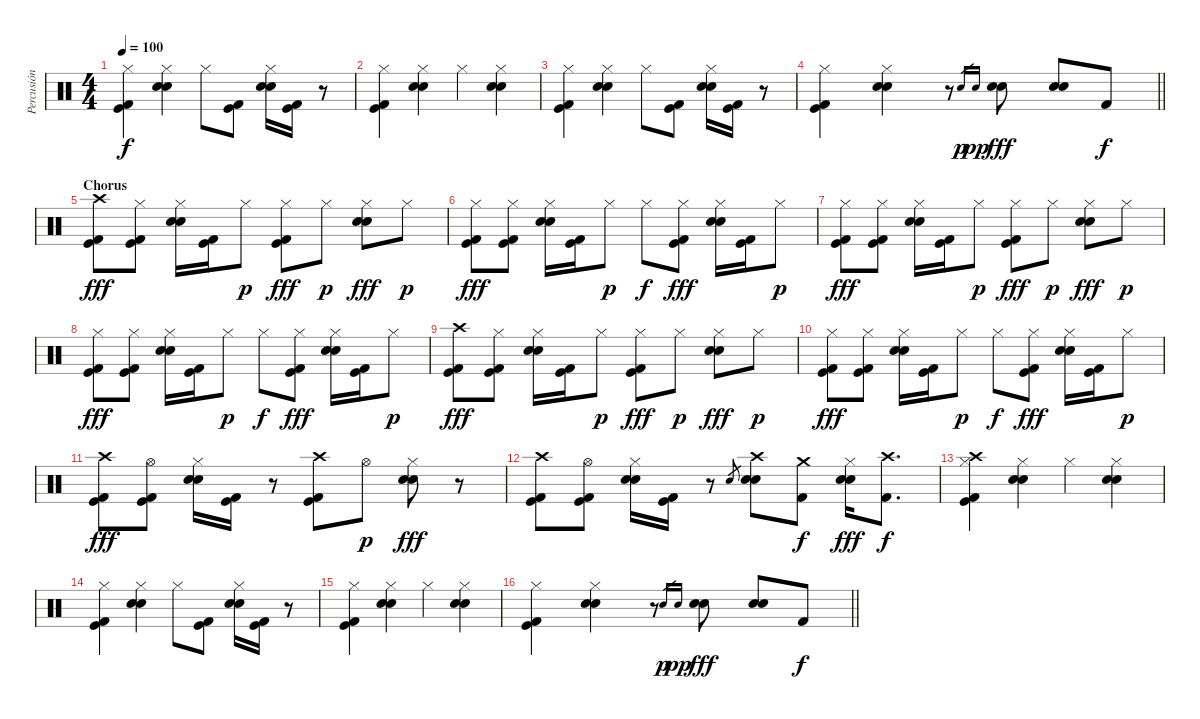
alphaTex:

\track ("Percusión" "Percusión") {instrument percussion}
\staff {score}
\articulation defaults
\ts (4 4)
\tempo 100
\clef neutral
\ks c
("Hi-Hat (closed)" "Kick (hit)" "Kick (hit) 2").4{dy f} ("Hi-Hat (closed)" "Snare (hit) 2" "Electric Snare (hit)").4 "Hi-Hat (closed)".8 ("Kick (hit)" "Kick (hit) 2").8 ("Hi-Hat (closed)" "Snare (hit) 2" "Electric Snare (hit)").16 ("Kick (hit)" "Kick (hit) 2").16 r.8 |
("Hi-Hat (closed)" "Kick (hit)" "Kick (hit) 2").4 ("Hi-Hat (closed)" "Snare (hit) 2" "Electric Snare (hit)").4 "Hi-Hat (closed)".4 ("Hi-Hat (closed)" "Snare (hit) 2" "Electric Snare (hit)").4 |
("Hi-Hat (closed)" "Kick (hit)" "Kick (hit) 2").4 ("Hi-Hat (closed)" "Snare (hit) 2" "Electric Snare (hit)").4 "Hi-Hat (closed)".8 ("Kick (hit)" "Kick (hit) 2").8 ("Hi-Hat (closed)" "Snare (hit) 2" "Electric Snare (hit)").16 ("Kick (hit)" "Kick (hit) 2").16 r.8 |
\barLineRight lightlight
("Hi-Hat (closed)" "Kick (hit)" "Kick (hit) 2").4 ("Hi-Hat (closed)" "Snare (hit) 2" "Electric Snare (hit)").4 r.8 "Snare (hit) 2".16{gr dy p} "Electric Snare (hit)".16{gr dy pp} ("Snare (hit) 2" "Electric Snare (hit)").8{dy fff} ("Snare (hit) 2" "Electric Snare (hit)").8 "Kick (hit) 2".8{dy f} |
\section ("" "Chorus")
("Crash high (hit)" "Kick (hit)" "Kick (hit) 2").8{dy fff} ("Hi-Hat (closed)" "Kick (hit)" "Kick (hit) 2").8 ("Hi-Hat (closed)" "Snare (hit) 2" "Electric Snare (hit)").16 ("Kick (hit)" "Kick (hit) 2").16 "Hi-Hat (closed)".8{dy p} ("Hi-Hat (closed)" "Kick (hit)" "Kick (hit) 2").8{dy fff} "Hi-Hat (closed)".8{dy p} ("Hi-Hat (closed)" "Snare (hit) 2" "Electric Snare (hit)").8{dy fff} "Hi-Hat (closed)".8{dy p} |
("Hi-Hat (closed)" "Kick (hit)" "Kick (hit) 2").8{dy fff} ("Hi-Hat (closed)" "Kick (hit)" "Kick (hit) 2").8 ("Hi-Hat (closed)" "Snare (hit) 2" "Electric Snare (hit)").16 ("Kick (hit)" "Kick (hit) 2").16 "Hi-Hat (closed)".8{dy p} "Hi-Hat (closed)".8{dy f} ("Hi-Hat (closed)" "Kick (hit)" "Kick (hit) 2").8{dy fff} ("Hi-Hat (closed)" "Snare (hit) 2" "Electric Snare (hit)").16 ("Kick (hit)" "Kick (hit) 2").16 "Hi-Hat (closed)".8{dy p} |
("Hi-Hat (closed)" "Kick (hit)" "Kick (hit) 2").8{dy fff} ("Hi-Hat (closed)" "Kick (hit)" "Kick (hit) 2").8 ("Hi-Hat (closed)" "Snare (hit) 2" "Electric Snare (hit)").16 ("Kick (hit)" "Kick (hit) 2").16 "Hi-Hat (closed)".8{dy p} ("Hi-Hat (closed)" "Kick (hit)" "Kick (hit) 2").8{dy fff} "Hi-Hat (closed)".8{dy p} ("Hi-Hat (closed)" "Snare (hit) 2" "Electric Snare (hit)").8{dy fff} "Hi-Hat (closed)".8{dy p} |
("Hi-Hat (closed)" "Kick (hit)" "Kick (hit) 2").8{dy fff} ("Hi-Hat (closed)" "Kick (hit)" "Kick (hit) 2").8 ("Hi-Hat (closed)" "Snare (hit) 2" "Electric Snare (hit)").16 ("Kick (hit)" "Kick (hit) 2").16 "Hi-Hat (closed)".8{dy p} "Hi-Hat (closed)".8{dy f} ("Hi-Hat (closed)" "Kick (hit)" "Kick (hit) 2").8{dy fff} ("Hi-Hat (closed)" "Snare (hit) 2" "Electric Snare (hit)").16 ("Kick (hit)" "Kick (hit) 2").16 "Hi-Hat (closed)".8{dy p} |
("Crash high (hit)" "Kick (hit)" "Kick (hit) 2").8{dy fff} ("Hi-Hat (closed)" "Kick (hit)" "Kick (hit) 2").8 ("Hi-Hat (closed)" "Snare (hit) 2" "Electric Snare (hit)").16 ("Kick (hit)" "Kick (hit) 2").16 "Hi-Hat (closed)".8{dy p} ("Hi-Hat (closed)" "Kick (hit)" "Kick (hit) 2").8{dy fff} "Hi-Hat (closed)".8{dy p} ("Hi-Hat (closed)" "Snare (hit) 2" "Electric Snare (hit)").8{dy fff} "Hi-Hat (closed)".8{dy p} |
("Hi-Hat (closed)" "Kick (hit)" "Kick (hit) 2").8{dy fff} ("Hi-Hat (closed)" "Kick (hit)" "Kick (hit) 2").8 ("Hi-Hat (closed)" "Snare (hit) 2" "Electric Snare (hit)").16 ("Kick (hit)" "Kick (hit) 2").16 "Hi-Hat (closed)".8{dy p} "Hi-Hat (closed)".8{dy f} ("Hi-Hat (closed)" "Kick (hit)" "Kick (hit) 2").8{dy fff} ("Hi-Hat (closed)" "Snare (hit) 2" "Electric Snare (hit)").16 ("Kick (hit)" "Kick (hit) 2").16 "Hi-Hat (closed)".8{dy p} |
("Crash high (hit)" "Kick (hit)" "Kick (hit) 2").8{dy fff} ("Hi-Hat (open)" "Kick (hit)" "Kick (hit) 2").8 ("Hi-Hat (closed)" "Snare (hit) 2" "Electric Snare (hit)").16 ("Kick (hit)" "Kick (hit) 2").16 r.8 ("Crash high (hit)" "Kick (hit)" "Kick (hit) 2").8 "Hi-Hat (open)".8{dy p} ("Hi-Hat (closed)" "Snare (hit) 2" "Electric Snare (hit)").8{dy fff} r.8 |
("Crash high (hit)" "Kick (hit)" "Kick (hit) 2").8 ("Hi-Hat (open)" "Kick (hit)" "Kick (hit) 2").8 ("Hi-Hat (closed)" "Snare (hit) 2" "Electric Snare (hit)").16 ("Kick (hit)" "Kick (hit) 2").16 r.8 "Snare (hit) 2".8{gr} ("Crash high (hit)" "Snare (hit) 2" "Electric Snare (hit)").8 ("Crash medium (hit)" "Kick (hit) 2").8{dy f} ("Hi-Hat (closed)" "Snare (hit) 2" "Electric Snare (hit)").16{dy fff} ("Crash high (hit)" "Kick (hit) 2").8{d dy f} |
("Hi-Hat (closed)" "Crash high (hit)" "Kick (hit)" "Kick (hit) 2").4 ("Hi-Hat (closed)" "Snare (hit) 2" "Electric Snare (hit)").4 "Hi-Hat (closed)".4 ("Hi-Hat (closed)" "Snare (hit) 2" "Electric Snare (hit)").4 |
("Hi-Hat (closed)" "Kick (hit)" "Kick (hit) 2").4 ("Hi-Hat (closed)" "Snare (hit) 2" "Electric Snare (hit)").4 "Hi-Hat (closed)".8 ("Kick (hit)" "Kick (hit) 2").8 ("Hi-Hat (closed)" "Snare (hit) 2" "Electric Snare (hit)").16 ("Kick (hit)" "Kick (hit) 2").16 r.8 |
("Hi-Hat (closed)" "Kick (hit)" "Kick (hit) 2").4 ("Hi-Hat (closed)" "Snare (hit) 2" "Electric Snare (hit)").4 "Hi-Hat (closed)".4 ("Hi-Hat (closed)" "Snare (hit) 2" "Electric Snare (hit)").4 |
\barLineRight lightlight
("Hi-Hat (closed)" "Kick (hit)" "Kick (hit) 2").4 ("Hi-Hat (closed)" "Snare (hit) 2" "Electric Snare (hit)").4 r.8 "Snare (hit) 2".16{gr dy p} "Electric Snare (hit)".16{gr dy pp} ("Snare (hit) 2" "Electric Snare (hit)").8{dy fff} ("Snare (hit) 2" "Electric Snare (hit)").8 "Kick (hit) 2".8{dy f}
